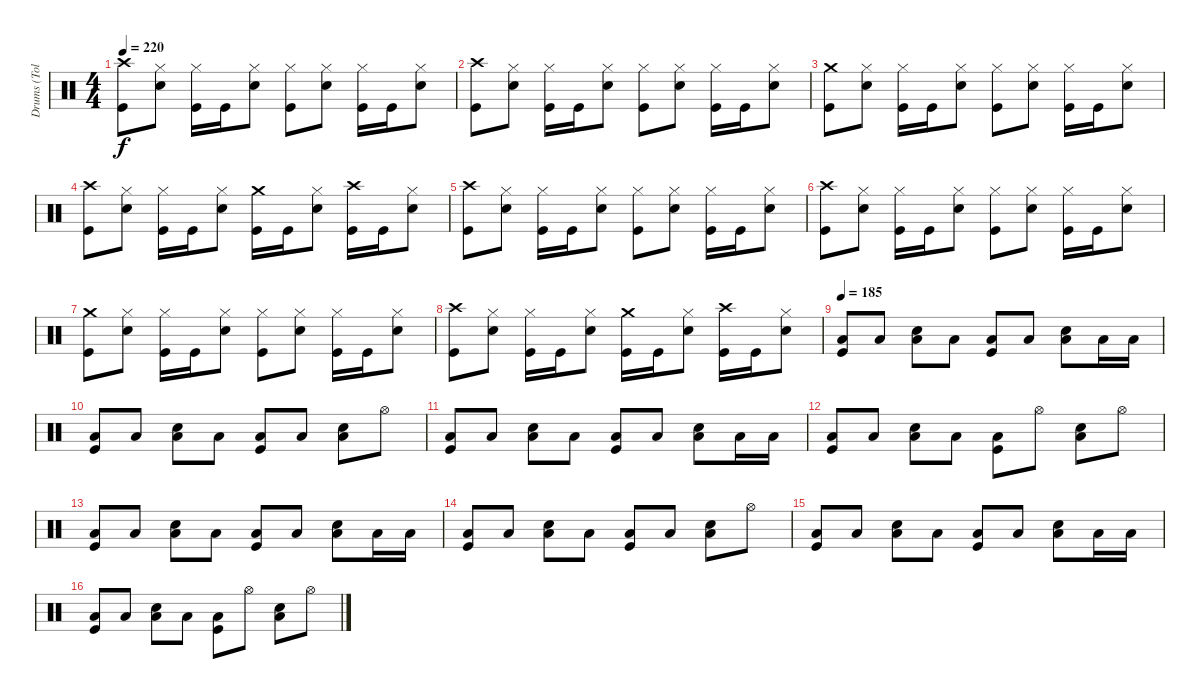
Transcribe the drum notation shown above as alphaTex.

\track ("Drums (Tolik)" "Drums (Tol") {instrument percussion}
\staff {score}
\articulation defaults
\ts (4 4)
\tempo 220
\clef neutral
\ks c
("Crash high (hit)" "Kick (hit)").8{dy f} ("Hi-Hat (closed)" "Electric Snare (hit)").8 ("Hi-Hat (closed)" "Kick (hit)").16 "Kick (hit)".16 ("Hi-Hat (closed)" "Electric Snare (hit)").8 ("Hi-Hat (closed)" "Kick (hit)").8 ("Hi-Hat (closed)" "Electric Snare (hit)").8 ("Hi-Hat (closed)" "Kick (hit)").16 "Kick (hit)".16 ("Hi-Hat (closed)" "Electric Snare (hit)").8 |
("Crash high (hit)" "Kick (hit)").8 ("Hi-Hat (closed)" "Electric Snare (hit)").8 ("Hi-Hat (closed)" "Kick (hit)").16 "Kick (hit)".16 ("Hi-Hat (closed)" "Electric Snare (hit)").8 ("Hi-Hat (closed)" "Kick (hit)").8 ("Hi-Hat (closed)" "Electric Snare (hit)").8 ("Hi-Hat (closed)" "Kick (hit)").16 "Kick (hit)".16 ("Hi-Hat (closed)" "Electric Snare (hit)").8 |
("Crash medium (hit)" "Kick (hit)").8 ("Hi-Hat (closed)" "Electric Snare (hit)").8 ("Hi-Hat (closed)" "Kick (hit)").16 "Kick (hit)".16 ("Hi-Hat (closed)" "Electric Snare (hit)").8 ("Hi-Hat (closed)" "Kick (hit)").8 ("Hi-Hat (closed)" "Electric Snare (hit)").8 ("Hi-Hat (closed)" "Kick (hit)").16 "Kick (hit)".16 ("Hi-Hat (closed)" "Electric Snare (hit)").8 |
("Crash high (hit)" "Kick (hit)").8 ("Hi-Hat (closed)" "Electric Snare (hit)").8 ("Hi-Hat (closed)" "Kick (hit)").16 "Kick (hit)".16 ("Hi-Hat (closed)" "Electric Snare (hit)").8 ("Crash medium (hit)" "Kick (hit)").16 "Kick (hit)".16 ("Hi-Hat (closed)" "Electric Snare (hit)").8 ("Crash high (hit)" "Kick (hit)").16 "Kick (hit)".16 ("Hi-Hat (closed)" "Electric Snare (hit)").8 |
("Crash high (hit)" "Kick (hit)").8 ("Hi-Hat (closed)" "Electric Snare (hit)").8 ("Hi-Hat (closed)" "Kick (hit)").16 "Kick (hit)".16 ("Hi-Hat (closed)" "Electric Snare (hit)").8 ("Hi-Hat (closed)" "Kick (hit)").8 ("Hi-Hat (closed)" "Electric Snare (hit)").8 ("Hi-Hat (closed)" "Kick (hit)").16 "Kick (hit)".16 ("Hi-Hat (closed)" "Electric Snare (hit)").8 |
("Crash high (hit)" "Kick (hit)").8 ("Hi-Hat (closed)" "Electric Snare (hit)").8 ("Hi-Hat (closed)" "Kick (hit)").16 "Kick (hit)".16 ("Hi-Hat (closed)" "Electric Snare (hit)").8 ("Hi-Hat (closed)" "Kick (hit)").8 ("Hi-Hat (closed)" "Electric Snare (hit)").8 ("Hi-Hat (closed)" "Kick (hit)").16 "Kick (hit)".16 ("Hi-Hat (closed)" "Electric Snare (hit)").8 |
("Crash medium (hit)" "Kick (hit)").8 ("Hi-Hat (closed)" "Electric Snare (hit)").8 ("Hi-Hat (closed)" "Kick (hit)").16 "Kick (hit)".16 ("Hi-Hat (closed)" "Electric Snare (hit)").8 ("Hi-Hat (closed)" "Kick (hit)").8 ("Hi-Hat (closed)" "Electric Snare (hit)").8 ("Hi-Hat (closed)" "Kick (hit)").16 "Kick (hit)".16 ("Hi-Hat (closed)" "Electric Snare (hit)").8 |
("Crash high (hit)" "Kick (hit)").8 ("Hi-Hat (closed)" "Electric Snare (hit)").8 ("Hi-Hat (closed)" "Kick (hit)").16 "Kick (hit)".16 ("Hi-Hat (closed)" "Electric Snare (hit)").8 ("Crash medium (hit)" "Kick (hit)").16 "Kick (hit)".16 ("Hi-Hat (closed)" "Electric Snare (hit)").8 ("Crash high (hit)" "Kick (hit)").16 "Kick (hit)".16 ("Hi-Hat (closed)" "Electric Snare (hit)").8 |
\tempo 185
("Low Floor Tom (hit)" "Kick (hit)").8 "Low Floor Tom (hit)".8 ("Low Floor Tom (hit)" "Electric Snare (hit)").8 "Low Floor Tom (hit)".8 ("Low Floor Tom (hit)" "Kick (hit)").8 "Low Floor Tom (hit)".8 ("Low Floor Tom (hit)" "Electric Snare (hit)").8 "Low Floor Tom (hit)".16 "Low Floor Tom (hit)".16 |
("Low Floor Tom (hit)" "Kick (hit)").8 "Low Floor Tom (hit)".8 ("Low Floor Tom (hit)" "Electric Snare (hit)").8 "Low Floor Tom (hit)".8 ("Low Floor Tom (hit)" "Kick (hit)").8 "Low Floor Tom (hit)".8 ("Low Floor Tom (hit)" "Electric Snare (hit)").8 "Hi-Hat (open)".8 |
("Low Floor Tom (hit)" "Kick (hit)").8 "Low Floor Tom (hit)".8 ("Low Floor Tom (hit)" "Electric Snare (hit)").8 "Low Floor Tom (hit)".8 ("Low Floor Tom (hit)" "Kick (hit)").8 "Low Floor Tom (hit)".8 ("Low Floor Tom (hit)" "Electric Snare (hit)").8 "Low Floor Tom (hit)".16 "Low Floor Tom (hit)".16 |
("Low Floor Tom (hit)" "Kick (hit)").8 "Low Floor Tom (hit)".8 ("Low Floor Tom (hit)" "Electric Snare (hit)").8 "Low Floor Tom (hit)".8 ("Low Floor Tom (hit)" "Kick (hit)").8 "Hi-Hat (open)".8 ("Low Floor Tom (hit)" "Electric Snare (hit)").8 "Hi-Hat (open)".8 |
("Low Floor Tom (hit)" "Kick (hit)").8 "Low Floor Tom (hit)".8 ("Low Floor Tom (hit)" "Electric Snare (hit)").8 "Low Floor Tom (hit)".8 ("Low Floor Tom (hit)" "Kick (hit)").8 "Low Floor Tom (hit)".8 ("Low Floor Tom (hit)" "Electric Snare (hit)").8 "Low Floor Tom (hit)".16 "Low Floor Tom (hit)".16 |
("Low Floor Tom (hit)" "Kick (hit)").8 "Low Floor Tom (hit)".8 ("Low Floor Tom (hit)" "Electric Snare (hit)").8 "Low Floor Tom (hit)".8 ("Low Floor Tom (hit)" "Kick (hit)").8 "Low Floor Tom (hit)".8 ("Low Floor Tom (hit)" "Electric Snare (hit)").8 "Hi-Hat (open)".8 |
("Low Floor Tom (hit)" "Kick (hit)").8 "Low Floor Tom (hit)".8 ("Low Floor Tom (hit)" "Electric Snare (hit)").8 "Low Floor Tom (hit)".8 ("Low Floor Tom (hit)" "Kick (hit)").8 "Low Floor Tom (hit)".8 ("Low Floor Tom (hit)" "Electric Snare (hit)").8 "Low Floor Tom (hit)".16 "Low Floor Tom (hit)".16 |
("Low Floor Tom (hit)" "Kick (hit)").8 "Low Floor Tom (hit)".8 ("Low Floor Tom (hit)" "Electric Snare (hit)").8 "Low Floor Tom (hit)".8 ("Low Floor Tom (hit)" "Kick (hit)").8 "Hi-Hat (open)".8 ("Low Floor Tom (hit)" "Electric Snare (hit)").8 "Hi-Hat (open)".8
